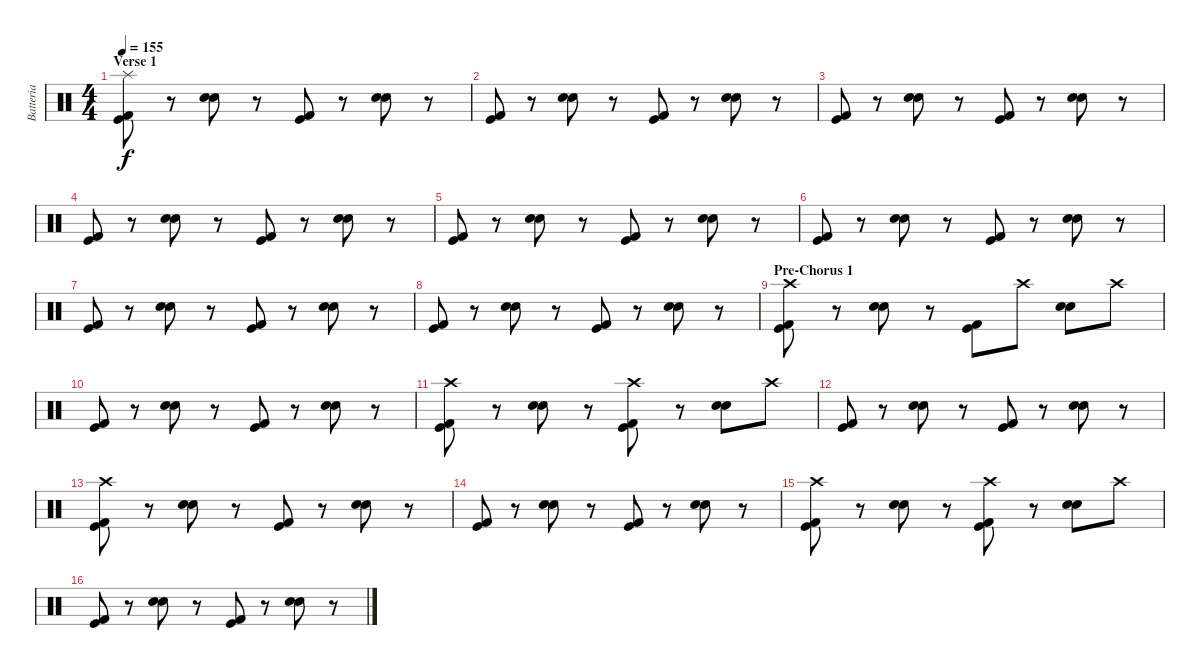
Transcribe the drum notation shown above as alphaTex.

\track ("Batteria" "Batteria") {instrument percussion}
\staff {score}
\articulation defaults
\ts (4 4)
\section ("" "Verse 1")
\tempo 155
\clef neutral
\ks c
("Kick (hit)" "Kick (hit) 2" "Splash (hit)").8{dy f} r.8 ("Electric Snare (hit)" "Snare (hit) 2").8 r.8 ("Kick (hit)" "Kick (hit) 2").8 r.8 ("Electric Snare (hit)" "Snare (hit) 2").8 r.8 |
("Kick (hit)" "Kick (hit) 2").8 r.8 ("Electric Snare (hit)" "Snare (hit) 2").8 r.8 ("Kick (hit)" "Kick (hit) 2").8 r.8 ("Electric Snare (hit)" "Snare (hit) 2").8 r.8 |
("Kick (hit)" "Kick (hit) 2").8 r.8 ("Electric Snare (hit)" "Snare (hit) 2").8 r.8 ("Kick (hit)" "Kick (hit) 2").8 r.8 ("Electric Snare (hit)" "Snare (hit) 2").8 r.8 |
("Kick (hit)" "Kick (hit) 2").8 r.8 ("Electric Snare (hit)" "Snare (hit) 2").8 r.8 ("Kick (hit)" "Kick (hit) 2").8 r.8 ("Electric Snare (hit)" "Snare (hit) 2").8 r.8 |
("Kick (hit)" "Kick (hit) 2").8 r.8 ("Electric Snare (hit)" "Snare (hit) 2").8 r.8 ("Kick (hit)" "Kick (hit) 2").8 r.8 ("Electric Snare (hit)" "Snare (hit) 2").8 r.8 |
("Kick (hit)" "Kick (hit) 2").8 r.8 ("Electric Snare (hit)" "Snare (hit) 2").8 r.8 ("Kick (hit)" "Kick (hit) 2").8 r.8 ("Electric Snare (hit)" "Snare (hit) 2").8 r.8 |
("Kick (hit)" "Kick (hit) 2").8 r.8 ("Electric Snare (hit)" "Snare (hit) 2").8 r.8 ("Kick (hit)" "Kick (hit) 2").8 r.8 ("Electric Snare (hit)" "Snare (hit) 2").8 r.8 |
("Kick (hit)" "Kick (hit) 2").8 r.8 ("Electric Snare (hit)" "Snare (hit) 2").8 r.8 ("Kick (hit)" "Kick (hit) 2").8 r.8 ("Electric Snare (hit)" "Snare (hit) 2").8 r.8 |
\section ("" "Pre-Chorus 1")
("Kick (hit)" "Kick (hit) 2" "Crash high (hit)").8 r.8 ("Electric Snare (hit)" "Snare (hit) 2").8 r.8 ("Kick (hit)" "Kick (hit) 2").8 "Crash high (hit)".8 ("Electric Snare (hit)" "Snare (hit) 2").8 "Crash high (hit)".8 |
("Kick (hit)" "Kick (hit) 2").8 r.8 ("Electric Snare (hit)" "Snare (hit) 2").8 r.8 ("Kick (hit)" "Kick (hit) 2").8 r.8 ("Electric Snare (hit)" "Snare (hit) 2").8 r.8 |
("Kick (hit)" "Kick (hit) 2" "Crash high (hit)").8 r.8 ("Electric Snare (hit)" "Snare (hit) 2").8 r.8 ("Kick (hit)" "Kick (hit) 2" "Crash high (hit)").8 r.8 ("Electric Snare (hit)" "Snare (hit) 2").8 "Crash high (hit)".8 |
("Kick (hit)" "Kick (hit) 2").8 r.8 ("Electric Snare (hit)" "Snare (hit) 2").8 r.8 ("Kick (hit)" "Kick (hit) 2").8 r.8 ("Electric Snare (hit)" "Snare (hit) 2").8 r.8 |
("Kick (hit)" "Kick (hit) 2" "Crash high (hit)").8 r.8 ("Electric Snare (hit)" "Snare (hit) 2").8 r.8 ("Kick (hit)" "Kick (hit) 2").8 r.8 ("Electric Snare (hit)" "Snare (hit) 2").8 r.8 |
("Kick (hit)" "Kick (hit) 2").8 r.8 ("Electric Snare (hit)" "Snare (hit) 2").8 r.8 ("Kick (hit)" "Kick (hit) 2").8 r.8 ("Electric Snare (hit)" "Snare (hit) 2").8 r.8 |
("Kick (hit)" "Kick (hit) 2" "Crash high (hit)").8 r.8 ("Electric Snare (hit)" "Snare (hit) 2").8 r.8 ("Kick (hit)" "Kick (hit) 2" "Crash high (hit)").8 r.8 ("Electric Snare (hit)" "Snare (hit) 2").8 "Crash high (hit)".8 |
("Kick (hit)" "Kick (hit) 2").8 r.8 ("Electric Snare (hit)" "Snare (hit) 2").8 r.8 ("Kick (hit)" "Kick (hit) 2").8 r.8 ("Electric Snare (hit)" "Snare (hit) 2").8 r.8
